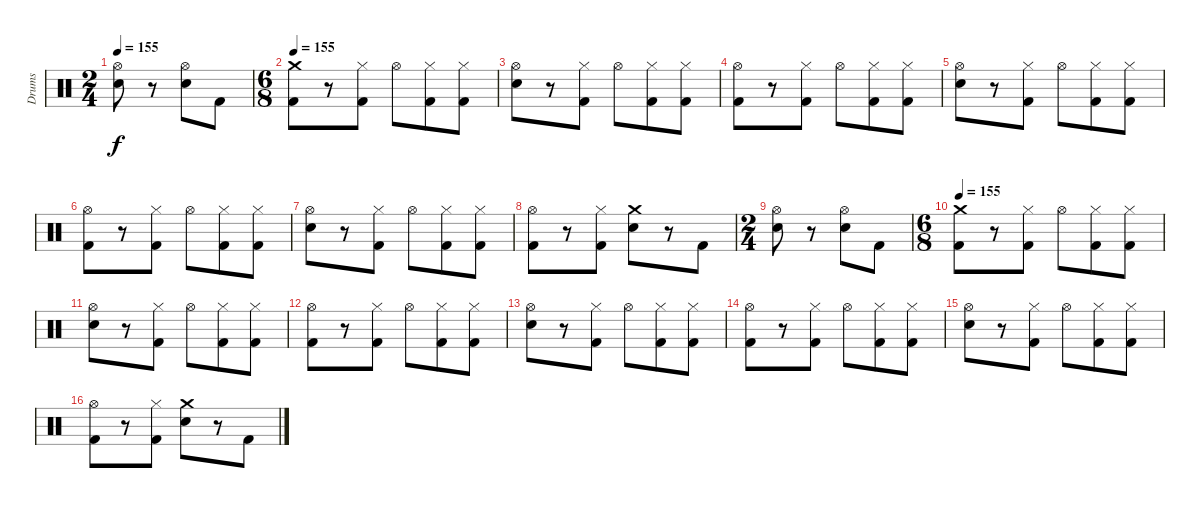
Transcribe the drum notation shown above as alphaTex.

\track ("Drums" "Drums") {instrument percussion}
\staff {score}
\articulation defaults
\ts (2 4)
\tempo 155
\clef neutral
\ks c
("Hi-Hat (open)" "Electric Snare (hit)").8{dy f} r.8 ("Hi-Hat (open)" "Electric Snare (hit)").8 "Kick (hit) 2".8 |
\ts (6 8)
\tempo 155
("Crash medium (hit)" "Kick (hit) 2").8 r.8 ("Hi-Hat (closed)" "Kick (hit) 2").8 "Hi-Hat (open)".8 ("Hi-Hat (closed)" "Kick (hit) 2").8 ("Hi-Hat (closed)" "Kick (hit) 2").8 |
("Hi-Hat (open)" "Electric Snare (hit)").8 r.8 ("Hi-Hat (closed)" "Kick (hit) 2").8 "Hi-Hat (open)".8 ("Hi-Hat (closed)" "Kick (hit) 2").8 ("Hi-Hat (closed)" "Kick (hit) 2").8 |
("Hi-Hat (open)" "Kick (hit) 2").8 r.8 ("Hi-Hat (closed)" "Kick (hit) 2").8 "Hi-Hat (open)".8 ("Hi-Hat (closed)" "Kick (hit) 2").8 ("Hi-Hat (closed)" "Kick (hit) 2").8 |
("Hi-Hat (open)" "Electric Snare (hit)").8 r.8 ("Hi-Hat (closed)" "Kick (hit) 2").8 "Hi-Hat (open)".8 ("Hi-Hat (closed)" "Kick (hit) 2").8 ("Hi-Hat (closed)" "Kick (hit) 2").8 |
("Hi-Hat (open)" "Kick (hit) 2").8 r.8 ("Hi-Hat (closed)" "Kick (hit) 2").8 "Hi-Hat (open)".8 ("Hi-Hat (closed)" "Kick (hit) 2").8 ("Hi-Hat (closed)" "Kick (hit) 2").8 |
("Hi-Hat (open)" "Electric Snare (hit)").8 r.8 ("Hi-Hat (closed)" "Kick (hit) 2").8 "Hi-Hat (open)".8 ("Hi-Hat (closed)" "Kick (hit) 2").8 ("Hi-Hat (closed)" "Kick (hit) 2").8 |
("Hi-Hat (open)" "Kick (hit) 2").8 r.8 ("Hi-Hat (closed)" "Kick (hit) 2").8 ("Crash medium (hit)" "Electric Snare (hit)").8 r.8 "Kick (hit) 2".8 |
\ts (2 4)
("Hi-Hat (open)" "Electric Snare (hit)").8 r.8 ("Hi-Hat (open)" "Electric Snare (hit)").8 "Kick (hit) 2".8 |
\ts (6 8)
\tempo 155
("Crash medium (hit)" "Kick (hit) 2").8 r.8 ("Hi-Hat (closed)" "Kick (hit) 2").8 "Hi-Hat (open)".8 ("Hi-Hat (closed)" "Kick (hit) 2").8 ("Hi-Hat (closed)" "Kick (hit) 2").8 |
("Hi-Hat (open)" "Electric Snare (hit)").8 r.8 ("Hi-Hat (closed)" "Kick (hit) 2").8 "Hi-Hat (open)".8 ("Hi-Hat (closed)" "Kick (hit) 2").8 ("Hi-Hat (closed)" "Kick (hit) 2").8 |
("Hi-Hat (open)" "Kick (hit) 2").8 r.8 ("Hi-Hat (closed)" "Kick (hit) 2").8 "Hi-Hat (open)".8 ("Hi-Hat (closed)" "Kick (hit) 2").8 ("Hi-Hat (closed)" "Kick (hit) 2").8 |
("Hi-Hat (open)" "Electric Snare (hit)").8 r.8 ("Hi-Hat (closed)" "Kick (hit) 2").8 "Hi-Hat (open)".8 ("Hi-Hat (closed)" "Kick (hit) 2").8 ("Hi-Hat (closed)" "Kick (hit) 2").8 |
("Hi-Hat (open)" "Kick (hit) 2").8 r.8 ("Hi-Hat (closed)" "Kick (hit) 2").8 "Hi-Hat (open)".8 ("Hi-Hat (closed)" "Kick (hit) 2").8 ("Hi-Hat (closed)" "Kick (hit) 2").8 |
("Hi-Hat (open)" "Electric Snare (hit)").8 r.8 ("Hi-Hat (closed)" "Kick (hit) 2").8 "Hi-Hat (open)".8 ("Hi-Hat (closed)" "Kick (hit) 2").8 ("Hi-Hat (closed)" "Kick (hit) 2").8 |
("Hi-Hat (open)" "Kick (hit) 2").8 r.8 ("Hi-Hat (closed)" "Kick (hit) 2").8 ("Crash medium (hit)" "Electric Snare (hit)").8 r.8 "Kick (hit) 2".8
